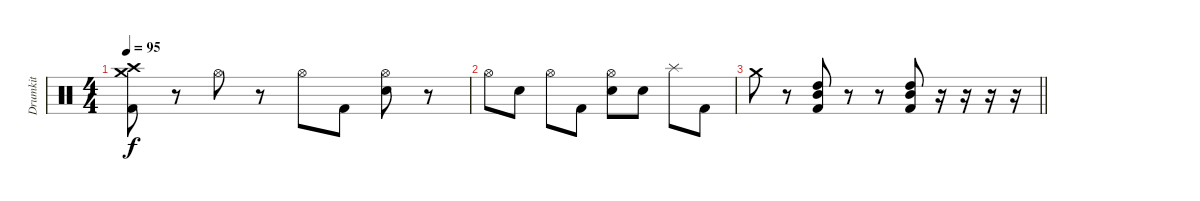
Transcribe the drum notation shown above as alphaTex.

\track ("Drumkit" "Drumkit") {instrument percussion}
\staff {score}
\articulation defaults
\ts (4 4)
\tempo 95
\clef neutral
\ks c
("Crash high (hit)" "Crash medium (hit)" "Kick (hit) 2").8{dy f} r.8 "Hi-Hat (open)".8 r.8 "Hi-Hat (open)".8 "Kick (hit) 2".8 ("Hi-Hat (open)" "Electric Snare (hit)").8 r.8 |
"Hi-Hat (open)".8 "Electric Snare (hit)".8 "Hi-Hat (open)".8 "Kick (hit) 2".8 ("Hi-Hat (open)" "Electric Snare (hit)").8 "Electric Snare (hit)".8 "Splash (hit)".8 "Kick (hit) 2".8 |
\barLineRight lightlight "Crash medium (hit)".8
r.8 ("Mid Tom (hit)" "High Tom (hit)" "Kick (hit) 2").8 r.8 r.8 ("High Tom (hit)" "Mid Tom (hit)" "Kick (hit) 2").8 r.16 r.16 r.16 r.16
